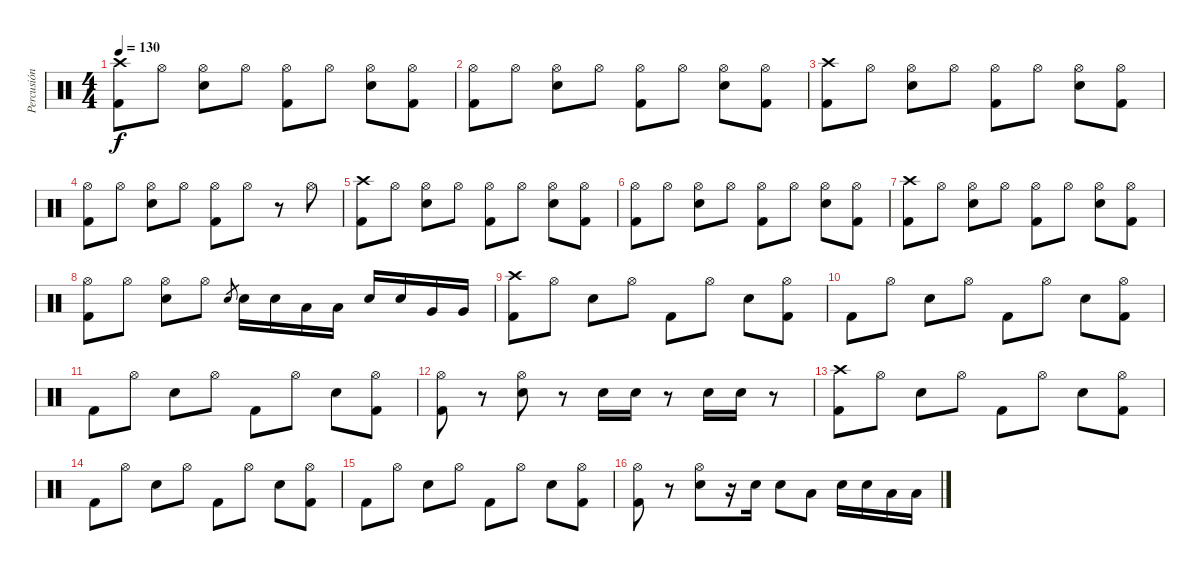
\track ("Percusión" "Percusión") {instrument percussion}
\staff {score}
\articulation defaults
\ts (4 4)
\tempo 130
\clef neutral
\ks c
("Crash high (hit)" "Kick (hit) 2").8{dy f} "Hi-Hat (open)".8 ("Hi-Hat (open)" "Electric Snare (hit)").8 "Hi-Hat (open)".8 ("Hi-Hat (open)" "Kick (hit) 2").8 "Hi-Hat (open)".8 ("Hi-Hat (open)" "Electric Snare (hit)").8 ("Hi-Hat (open)" "Kick (hit) 2").8 |
("Hi-Hat (open)" "Kick (hit) 2").8 "Hi-Hat (open)".8 ("Hi-Hat (open)" "Electric Snare (hit)").8 "Hi-Hat (open)".8 ("Hi-Hat (open)" "Kick (hit) 2").8 "Hi-Hat (open)".8 ("Hi-Hat (open)" "Electric Snare (hit)").8 ("Hi-Hat (open)" "Kick (hit) 2").8 |
("Crash high (hit)" "Kick (hit) 2").8 "Hi-Hat (open)".8 ("Hi-Hat (open)" "Electric Snare (hit)").8 "Hi-Hat (open)".8 ("Hi-Hat (open)" "Kick (hit) 2").8 "Hi-Hat (open)".8 ("Hi-Hat (open)" "Electric Snare (hit)").8 ("Hi-Hat (open)" "Kick (hit) 2").8 |
("Hi-Hat (open)" "Kick (hit) 2").8 "Hi-Hat (open)".8 ("Hi-Hat (open)" "Electric Snare (hit)").8 "Hi-Hat (open)".8 ("Hi-Hat (open)" "Kick (hit) 2").8 "Hi-Hat (open)".8 r.8 "Hi-Hat (open)".8 |
("Crash high (hit)" "Kick (hit) 2").8 "Hi-Hat (open)".8 ("Hi-Hat (open)" "Electric Snare (hit)").8 "Hi-Hat (open)".8 ("Hi-Hat (open)" "Kick (hit) 2").8 "Hi-Hat (open)".8 ("Hi-Hat (open)" "Electric Snare (hit)").8 ("Hi-Hat (open)" "Kick (hit) 2").8 |
("Hi-Hat (open)" "Kick (hit) 2").8 "Hi-Hat (open)".8 ("Hi-Hat (open)" "Electric Snare (hit)").8 "Hi-Hat (open)".8 ("Hi-Hat (open)" "Kick (hit) 2").8 "Hi-Hat (open)".8 ("Hi-Hat (open)" "Electric Snare (hit)").8 ("Hi-Hat (open)" "Kick (hit) 2").8 |
("Crash high (hit)" "Kick (hit) 2").8 "Hi-Hat (open)".8 ("Hi-Hat (open)" "Electric Snare (hit)").8 "Hi-Hat (open)".8 ("Hi-Hat (open)" "Kick (hit) 2").8 "Hi-Hat (open)".8 ("Hi-Hat (open)" "Electric Snare (hit)").8 ("Hi-Hat (open)" "Kick (hit) 2").8 |
("Hi-Hat (open)" "Kick (hit) 2").8 "Hi-Hat (open)".8 ("Hi-Hat (open)" "Electric Snare (hit)").8 "Hi-Hat (open)".8 "Electric Snare (hit)".8{gr} "Electric Snare (hit)".16 "Electric Snare (hit)".16 "Low Tom (hit)".16 "Low Tom (hit)".16 "Electric Snare (hit)".16 "Electric Snare (hit)".16 "Very Low Tom (hit)".16 "Very Low Tom (hit)".16 |
("Crash high (hit)" "Kick (hit) 2").8 "Hi-Hat (open)".8 "Electric Snare (hit)".8 "Hi-Hat (open)".8 "Kick (hit) 2".8 "Hi-Hat (open)".8 "Electric Snare (hit)".8 ("Hi-Hat (open)" "Kick (hit) 2").8 |
"Kick (hit) 2".8 "Hi-Hat (open)".8 "Electric Snare (hit)".8 "Hi-Hat (open)".8 "Kick (hit) 2".8 "Hi-Hat (open)".8 "Electric Snare (hit)".8 ("Hi-Hat (open)" "Kick (hit) 2").8 |
"Kick (hit) 2".8 "Hi-Hat (open)".8 "Electric Snare (hit)".8 "Hi-Hat (open)".8 "Kick (hit) 2".8 "Hi-Hat (open)".8 "Electric Snare (hit)".8 ("Hi-Hat (open)" "Kick (hit) 2").8 |
("Hi-Hat (open)" "Kick (hit) 2").8 r.8 ("Hi-Hat (open)" "Electric Snare (hit)").8 r.8 "Electric Snare (hit)".16 "Electric Snare (hit)".16 r.8 "Electric Snare (hit)".16 "Electric Snare (hit)".16 r.8 |
("Crash high (hit)" "Kick (hit) 2").8 "Hi-Hat (open)".8 "Electric Snare (hit)".8 "Hi-Hat (open)".8 "Kick (hit) 2".8 "Hi-Hat (open)".8 "Electric Snare (hit)".8 ("Hi-Hat (open)" "Kick (hit) 2").8 |
"Kick (hit) 2".8 "Hi-Hat (open)".8 "Electric Snare (hit)".8 "Hi-Hat (open)".8 "Kick (hit) 2".8 "Hi-Hat (open)".8 "Electric Snare (hit)".8 ("Hi-Hat (open)" "Kick (hit) 2").8 |
"Kick (hit) 2".8 "Hi-Hat (open)".8 "Electric Snare (hit)".8 "Hi-Hat (open)".8 "Kick (hit) 2".8 "Hi-Hat (open)".8 "Electric Snare (hit)".8 ("Hi-Hat (open)" "Kick (hit) 2").8 |
("Hi-Hat (open)" "Kick (hit) 2").8 r.8 ("Hi-Hat (open)" "Electric Snare (hit)").8 r.16 "Electric Snare (hit)".16 "Electric Snare (hit)".8 "Low Tom (hit)".8 "Electric Snare (hit)".16 "Electric Snare (hit)".16 "Low Tom (hit)".16 "Low Tom (hit)".16
